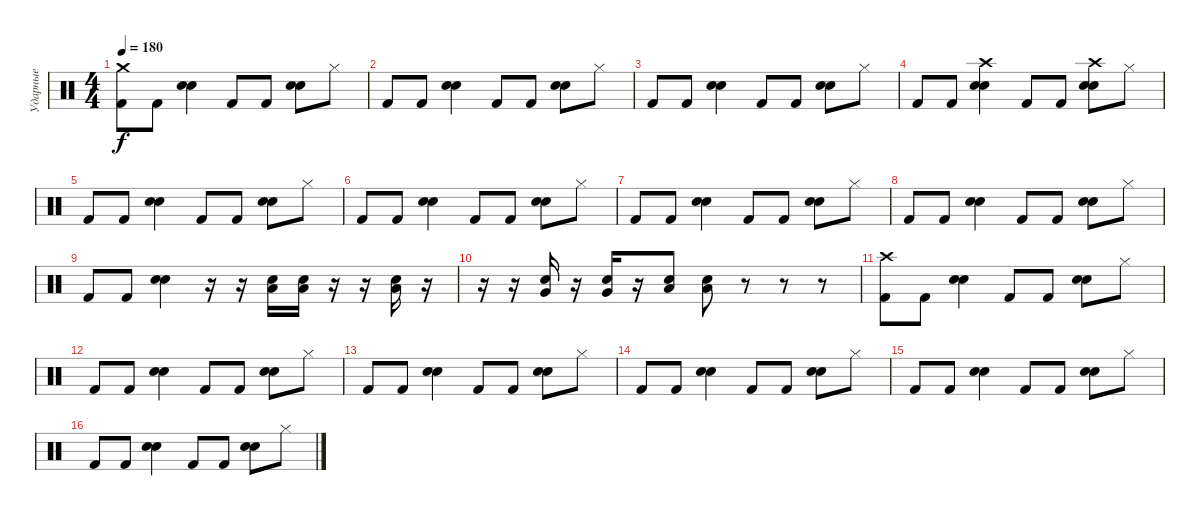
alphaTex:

\track ("Ударные" "Ударные") {instrument percussion}
\staff {score}
\articulation defaults
\ts (4 4)
\tempo 180
\clef neutral
\ks c
("Crash medium (hit)" "Kick (hit) 2").8{dy f} "Kick (hit) 2".8 ("Snare (hit) 2" "Electric Snare (hit)").4 "Kick (hit) 2".8 "Kick (hit) 2".8 ("Snare (hit) 2" "Electric Snare (hit)").8 "Hi-Hat (closed)".8 |
"Kick (hit) 2".8 "Kick (hit) 2".8 ("Snare (hit) 2" "Electric Snare (hit)").4 "Kick (hit) 2".8 "Kick (hit) 2".8 ("Snare (hit) 2" "Electric Snare (hit)").8 "Hi-Hat (closed)".8 |
"Kick (hit) 2".8 "Kick (hit) 2".8 ("Snare (hit) 2" "Electric Snare (hit)").4 "Kick (hit) 2".8 "Kick (hit) 2".8 ("Snare (hit) 2" "Electric Snare (hit)").8 "Hi-Hat (closed)".8 |
"Kick (hit) 2".8 "Kick (hit) 2".8 ("Crash high (hit)" "Snare (hit) 2" "Electric Snare (hit)").4 "Kick (hit) 2".8 "Kick (hit) 2".8 ("Crash high (hit)" "Snare (hit) 2" "Electric Snare (hit)").8 "Hi-Hat (closed)".8 |
"Kick (hit) 2".8 "Kick (hit) 2".8 ("Snare (hit) 2" "Electric Snare (hit)").4 "Kick (hit) 2".8 "Kick (hit) 2".8 ("Snare (hit) 2" "Electric Snare (hit)").8 "Hi-Hat (closed)".8 |
"Kick (hit) 2".8 "Kick (hit) 2".8 ("Snare (hit) 2" "Electric Snare (hit)").4 "Kick (hit) 2".8 "Kick (hit) 2".8 ("Snare (hit) 2" "Electric Snare (hit)").8 "Hi-Hat (closed)".8 |
"Kick (hit) 2".8 "Kick (hit) 2".8 ("Snare (hit) 2" "Electric Snare (hit)").4 "Kick (hit) 2".8 "Kick (hit) 2".8 ("Snare (hit) 2" "Electric Snare (hit)").8 "Hi-Hat (closed)".8 |
"Kick (hit) 2".8 "Kick (hit) 2".8 ("Snare (hit) 2" "Electric Snare (hit)").4 "Kick (hit) 2".8 "Kick (hit) 2".8 ("Snare (hit) 2" "Electric Snare (hit)").8 "Hi-Hat (closed)".8 |
"Kick (hit) 2".8 "Kick (hit) 2".8 ("Snare (hit) 2" "Electric Snare (hit)").4 r.16 r.16 ("Low Tom (hit)" "Electric Snare (hit)").16 ("Low Tom (hit)" "Electric Snare (hit)").16 r.16 r.16 ("Low Tom (hit)" "Electric Snare (hit)").16 r.16 |
r.16 r.16 ("Very Low Tom (hit)" "Electric Snare (hit)").16 r.16 ("Very Low Tom (hit)" "Electric Snare (hit)").16 r.16 ("Low Tom (hit)" "Electric Snare (hit)").8 ("Low Tom (hit)" "Electric Snare (hit)").8 r.8 r.8 r.8 |
("Crash high (hit)" "Kick (hit) 2").8 "Kick (hit) 2".8 ("Snare (hit) 2" "Electric Snare (hit)").4 "Kick (hit) 2".8 "Kick (hit) 2".8 ("Snare (hit) 2" "Electric Snare (hit)").8 "Hi-Hat (closed)".8 |
"Kick (hit) 2".8 "Kick (hit) 2".8 ("Snare (hit) 2" "Electric Snare (hit)").4 "Kick (hit) 2".8 "Kick (hit) 2".8 ("Snare (hit) 2" "Electric Snare (hit)").8 "Hi-Hat (closed)".8 |
"Kick (hit) 2".8 "Kick (hit) 2".8 ("Snare (hit) 2" "Electric Snare (hit)").4 "Kick (hit) 2".8 "Kick (hit) 2".8 ("Snare (hit) 2" "Electric Snare (hit)").8 "Hi-Hat (closed)".8 |
"Kick (hit) 2".8 "Kick (hit) 2".8 ("Snare (hit) 2" "Electric Snare (hit)").4 "Kick (hit) 2".8 "Kick (hit) 2".8 ("Snare (hit) 2" "Electric Snare (hit)").8 "Hi-Hat (closed)".8 |
"Kick (hit) 2".8 "Kick (hit) 2".8 ("Snare (hit) 2" "Electric Snare (hit)").4 "Kick (hit) 2".8 "Kick (hit) 2".8 ("Snare (hit) 2" "Electric Snare (hit)").8 "Hi-Hat (closed)".8 |
"Kick (hit) 2".8 "Kick (hit) 2".8 ("Snare (hit) 2" "Electric Snare (hit)").4 "Kick (hit) 2".8 "Kick (hit) 2".8 ("Snare (hit) 2" "Electric Snare (hit)").8 "Hi-Hat (closed)".8
